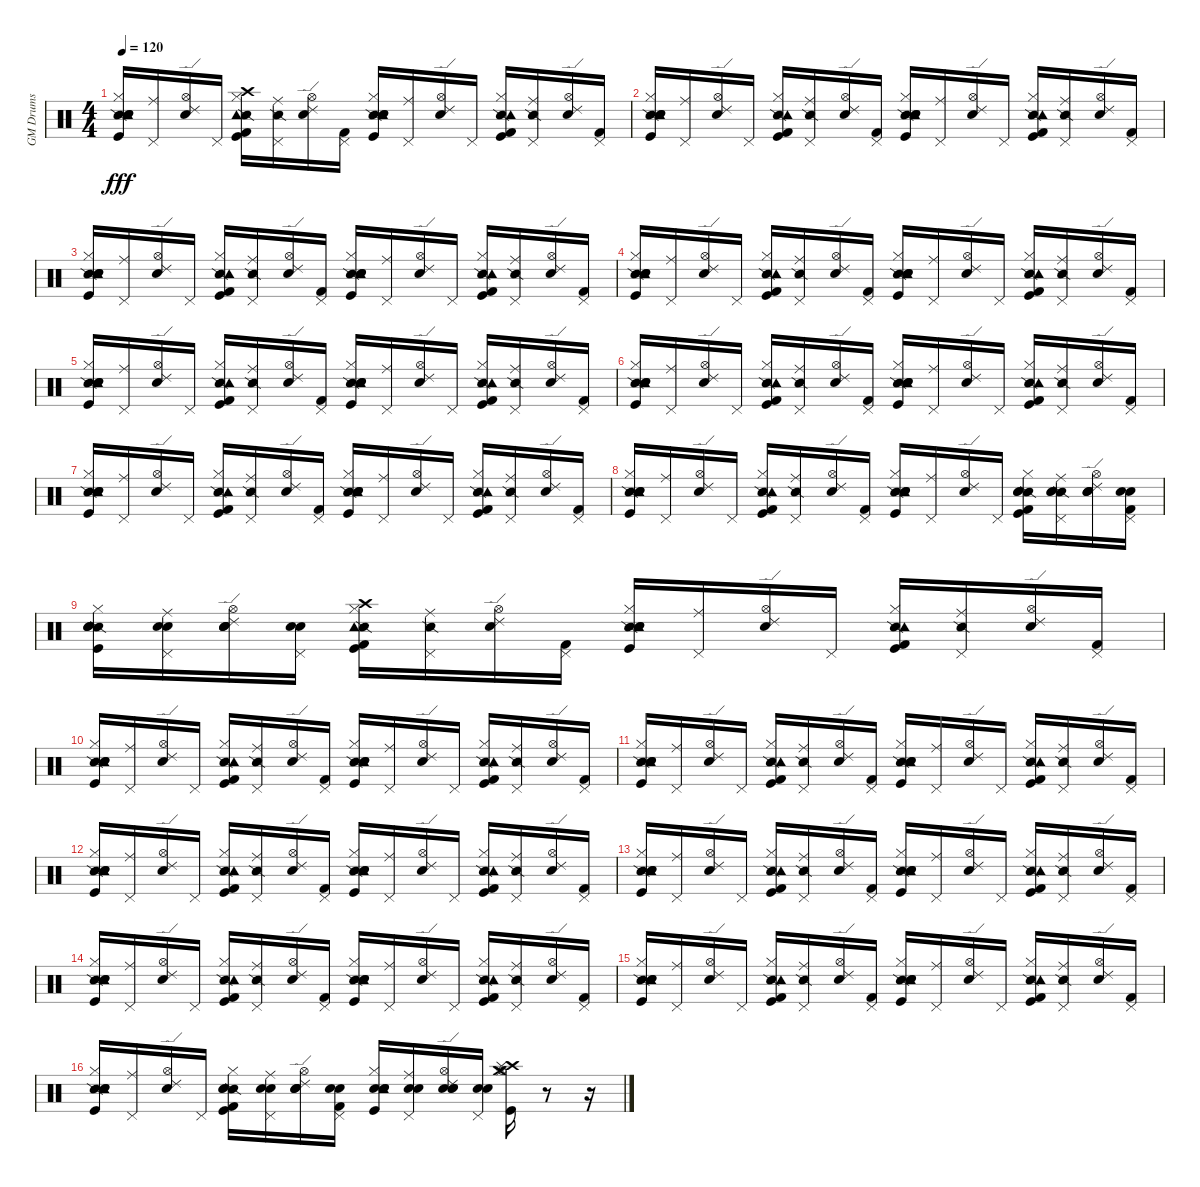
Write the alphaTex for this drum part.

\track ("GM Drums" "GM Drums") {instrument percussion}
\staff {score}
\articulation defaults
\ts (4 4)
\tempo 120
\clef neutral
\ks c
("Snare (side stick) 2" "Kick (hit)" "Snare (hit) 2" "Hand Clap (hit)" "Hi-Hat (closed)" "Tambourine (hit)").16{dy fff} ("Pedal Hi-Hat (hit)" "Ride (middle)").16 ("Metronome (bell)" "Hi-Hat (open)" "Ride (edge) 2").16 "Pedal Hi-Hat (hit)".16 ("Snare (side stick) 2" "Kick (hit)" "Kick (hit) 2" "Hi-Hat (closed)" "Crash high (hit)" "Tambourine (hit)").16 ("Snare (side stick) 2" "Pedal Hi-Hat (hit)" "Ride (middle)").16 ("Metronome (bell)" "Hi-Hat (open)" "Ride (edge) 2").16 ("Kick (hit) 2" "Pedal Hi-Hat (hit)").16 ("Snare (side stick) 2" "Kick (hit)" "Snare (hit) 2" "Hand Clap (hit)" "Hi-Hat (closed)" "Tambourine (hit)").16 ("Pedal Hi-Hat (hit)" "Ride (middle)").16 ("Metronome (bell)" "Hi-Hat (open)" "Ride (edge) 2").16 "Pedal Hi-Hat (hit)".16 ("Snare (side stick) 2" "Kick (hit)" "Kick (hit) 2" "Hi-Hat (closed)" "Tambourine (hit)").16 ("Snare (side stick) 2" "Pedal Hi-Hat (hit)" "Ride (middle)").16 ("Metronome (bell)" "Hi-Hat (open)" "Ride (edge) 2").16 ("Kick (hit) 2" "Pedal Hi-Hat (hit)").16 |
("Snare (side stick) 2" "Kick (hit)" "Snare (hit) 2" "Hand Clap (hit)" "Hi-Hat (closed)" "Tambourine (hit)").16 ("Pedal Hi-Hat (hit)" "Ride (middle)").16 ("Metronome (bell)" "Hi-Hat (open)" "Ride (edge) 2").16 "Pedal Hi-Hat (hit)".16 ("Snare (side stick) 2" "Kick (hit)" "Kick (hit) 2" "Hi-Hat (closed)" "Tambourine (hit)").16 ("Snare (side stick) 2" "Pedal Hi-Hat (hit)" "Ride (middle)").16 ("Metronome (bell)" "Hi-Hat (open)" "Ride (edge) 2").16 ("Kick (hit) 2" "Pedal Hi-Hat (hit)").16 ("Snare (side stick) 2" "Kick (hit)" "Snare (hit) 2" "Hand Clap (hit)" "Hi-Hat (closed)" "Tambourine (hit)").16 ("Pedal Hi-Hat (hit)" "Ride (middle)").16 ("Metronome (bell)" "Hi-Hat (open)" "Ride (edge) 2").16 "Pedal Hi-Hat (hit)".16 ("Snare (side stick) 2" "Kick (hit)" "Kick (hit) 2" "Hi-Hat (closed)" "Tambourine (hit)").16 ("Snare (side stick) 2" "Pedal Hi-Hat (hit)" "Ride (middle)").16 ("Metronome (bell)" "Hi-Hat (open)" "Ride (edge) 2").16 ("Kick (hit) 2" "Pedal Hi-Hat (hit)").16 |
("Snare (side stick) 2" "Kick (hit)" "Snare (hit) 2" "Hand Clap (hit)" "Hi-Hat (closed)" "Tambourine (hit)").16 ("Pedal Hi-Hat (hit)" "Ride (middle)").16 ("Metronome (bell)" "Hi-Hat (open)" "Ride (edge) 2").16 "Pedal Hi-Hat (hit)".16 ("Snare (side stick) 2" "Kick (hit)" "Kick (hit) 2" "Hi-Hat (closed)" "Tambourine (hit)").16 ("Snare (side stick) 2" "Pedal Hi-Hat (hit)" "Ride (middle)").16 ("Metronome (bell)" "Hi-Hat (open)" "Ride (edge) 2").16 ("Kick (hit) 2" "Pedal Hi-Hat (hit)").16 ("Snare (side stick) 2" "Kick (hit)" "Snare (hit) 2" "Hand Clap (hit)" "Hi-Hat (closed)" "Tambourine (hit)").16 ("Pedal Hi-Hat (hit)" "Ride (middle)").16 ("Metronome (bell)" "Hi-Hat (open)" "Ride (edge) 2").16 "Pedal Hi-Hat (hit)".16 ("Snare (side stick) 2" "Kick (hit)" "Kick (hit) 2" "Hi-Hat (closed)" "Tambourine (hit)").16 ("Snare (side stick) 2" "Pedal Hi-Hat (hit)" "Ride (middle)").16 ("Metronome (bell)" "Hi-Hat (open)" "Ride (edge) 2").16 ("Kick (hit) 2" "Pedal Hi-Hat (hit)").16 |
("Snare (side stick) 2" "Kick (hit)" "Snare (hit) 2" "Hand Clap (hit)" "Hi-Hat (closed)" "Tambourine (hit)").16 ("Pedal Hi-Hat (hit)" "Ride (middle)").16 ("Metronome (bell)" "Hi-Hat (open)" "Ride (edge) 2").16 "Pedal Hi-Hat (hit)".16 ("Snare (side stick) 2" "Kick (hit)" "Kick (hit) 2" "Hi-Hat (closed)" "Tambourine (hit)").16 ("Snare (side stick) 2" "Pedal Hi-Hat (hit)" "Ride (middle)").16 ("Metronome (bell)" "Hi-Hat (open)" "Ride (edge) 2").16 ("Kick (hit) 2" "Pedal Hi-Hat (hit)").16 ("Snare (side stick) 2" "Kick (hit)" "Snare (hit) 2" "Hand Clap (hit)" "Hi-Hat (closed)" "Tambourine (hit)").16 ("Pedal Hi-Hat (hit)" "Ride (middle)").16 ("Metronome (bell)" "Hi-Hat (open)" "Ride (edge) 2").16 "Pedal Hi-Hat (hit)".16 ("Snare (side stick) 2" "Kick (hit)" "Kick (hit) 2" "Hi-Hat (closed)" "Tambourine (hit)").16 ("Snare (side stick) 2" "Pedal Hi-Hat (hit)" "Ride (middle)").16 ("Metronome (bell)" "Hi-Hat (open)" "Ride (edge) 2").16 ("Kick (hit) 2" "Pedal Hi-Hat (hit)").16 |
("Snare (side stick) 2" "Kick (hit)" "Snare (hit) 2" "Hand Clap (hit)" "Hi-Hat (closed)" "Tambourine (hit)").16 ("Pedal Hi-Hat (hit)" "Ride (middle)").16 ("Metronome (bell)" "Hi-Hat (open)" "Ride (edge) 2").16 "Pedal Hi-Hat (hit)".16 ("Snare (side stick) 2" "Kick (hit)" "Kick (hit) 2" "Hi-Hat (closed)" "Tambourine (hit)").16 ("Snare (side stick) 2" "Pedal Hi-Hat (hit)" "Ride (middle)").16 ("Metronome (bell)" "Hi-Hat (open)" "Ride (edge) 2").16 ("Kick (hit) 2" "Pedal Hi-Hat (hit)").16 ("Snare (side stick) 2" "Kick (hit)" "Snare (hit) 2" "Hand Clap (hit)" "Hi-Hat (closed)" "Tambourine (hit)").16 ("Pedal Hi-Hat (hit)" "Ride (middle)").16 ("Metronome (bell)" "Hi-Hat (open)" "Ride (edge) 2").16 "Pedal Hi-Hat (hit)".16 ("Snare (side stick) 2" "Kick (hit)" "Kick (hit) 2" "Hi-Hat (closed)" "Tambourine (hit)").16 ("Snare (side stick) 2" "Pedal Hi-Hat (hit)" "Ride (middle)").16 ("Metronome (bell)" "Hi-Hat (open)" "Ride (edge) 2").16 ("Kick (hit) 2" "Pedal Hi-Hat (hit)").16 |
("Snare (side stick) 2" "Kick (hit)" "Snare (hit) 2" "Hand Clap (hit)" "Hi-Hat (closed)" "Tambourine (hit)").16 ("Pedal Hi-Hat (hit)" "Ride (middle)").16 ("Metronome (bell)" "Hi-Hat (open)" "Ride (edge) 2").16 "Pedal Hi-Hat (hit)".16 ("Snare (side stick) 2" "Kick (hit)" "Kick (hit) 2" "Hi-Hat (closed)" "Tambourine (hit)").16 ("Snare (side stick) 2" "Pedal Hi-Hat (hit)" "Ride (middle)").16 ("Metronome (bell)" "Hi-Hat (open)" "Ride (edge) 2").16 ("Kick (hit) 2" "Pedal Hi-Hat (hit)").16 ("Snare (side stick) 2" "Kick (hit)" "Snare (hit) 2" "Hand Clap (hit)" "Hi-Hat (closed)" "Tambourine (hit)").16 ("Pedal Hi-Hat (hit)" "Ride (middle)").16 ("Metronome (bell)" "Hi-Hat (open)" "Ride (edge) 2").16 "Pedal Hi-Hat (hit)".16 ("Snare (side stick) 2" "Kick (hit)" "Kick (hit) 2" "Hi-Hat (closed)" "Tambourine (hit)").16 ("Snare (side stick) 2" "Pedal Hi-Hat (hit)" "Ride (middle)").16 ("Metronome (bell)" "Hi-Hat (open)" "Ride (edge) 2").16 ("Kick (hit) 2" "Pedal Hi-Hat (hit)").16 |
("Snare (side stick) 2" "Kick (hit)" "Snare (hit) 2" "Hand Clap (hit)" "Hi-Hat (closed)" "Tambourine (hit)").16 ("Pedal Hi-Hat (hit)" "Ride (middle)").16 ("Metronome (bell)" "Hi-Hat (open)" "Ride (edge) 2").16 "Pedal Hi-Hat (hit)".16 ("Snare (side stick) 2" "Kick (hit)" "Kick (hit) 2" "Hi-Hat (closed)" "Tambourine (hit)").16 ("Snare (side stick) 2" "Pedal Hi-Hat (hit)" "Ride (middle)").16 ("Metronome (bell)" "Hi-Hat (open)" "Ride (edge) 2").16 ("Kick (hit) 2" "Pedal Hi-Hat (hit)").16 ("Snare (side stick) 2" "Kick (hit)" "Snare (hit) 2" "Hand Clap (hit)" "Hi-Hat (closed)" "Tambourine (hit)").16 ("Pedal Hi-Hat (hit)" "Ride (middle)").16 ("Metronome (bell)" "Hi-Hat (open)" "Ride (edge) 2").16 "Pedal Hi-Hat (hit)".16 ("Snare (side stick) 2" "Kick (hit)" "Kick (hit) 2" "Hi-Hat (closed)" "Tambourine (hit)").16 ("Snare (side stick) 2" "Pedal Hi-Hat (hit)" "Ride (middle)").16 ("Metronome (bell)" "Hi-Hat (open)" "Ride (edge) 2").16 ("Kick (hit) 2" "Pedal Hi-Hat (hit)").16 |
("Snare (side stick) 2" "Kick (hit)" "Snare (hit) 2" "Hand Clap (hit)" "Hi-Hat (closed)" "Tambourine (hit)").16 ("Pedal Hi-Hat (hit)" "Ride (middle)").16 ("Metronome (bell)" "Hi-Hat (open)" "Ride (edge) 2").16 "Pedal Hi-Hat (hit)".16 ("Snare (side stick) 2" "Kick (hit)" "Kick (hit) 2" "Hi-Hat (closed)" "Tambourine (hit)").16 ("Snare (side stick) 2" "Pedal Hi-Hat (hit)" "Ride (middle)").16 ("Metronome (bell)" "Hi-Hat (open)" "Ride (edge) 2").16 ("Kick (hit) 2" "Pedal Hi-Hat (hit)").16 ("Snare (side stick) 2" "Kick (hit)" "Snare (hit) 2" "Hand Clap (hit)" "Hi-Hat (closed)" "Tambourine (hit)").16 ("Pedal Hi-Hat (hit)" "Ride (middle)").16 ("Metronome (bell)" "Hi-Hat (open)" "Ride (edge) 2").16 "Pedal Hi-Hat (hit)".16 ("Snare (side stick) 2" "Kick (hit)" "Kick (hit) 2" "Snare (hit) 2" "Electric Snare (hit)" "Hi-Hat (closed)").16 ("Snare (side stick) 2" "Snare (hit) 2" "Electric Snare (hit)" "Pedal Hi-Hat (hit)" "Ride (middle)").16 ("Metronome (bell)" "Snare (hit) 2" "Electric Snare (hit)" "Hi-Hat (open)" "Ride (edge) 2").16 ("Kick (hit) 2" "Snare (hit) 2" "Electric Snare (hit)" "Pedal Hi-Hat (hit)").16 |
("Snare (side stick) 2" "Kick (hit)" "Snare (hit) 2" "Hand Clap (hit)" "Electric Snare (hit)" "Hi-Hat (closed)").16 ("Snare (hit) 2" "Electric Snare (hit)" "Pedal Hi-Hat (hit)" "Ride (middle)").16 ("Metronome (bell)" "Snare (hit) 2" "Electric Snare (hit)" "Hi-Hat (open)" "Ride (edge) 2").16 ("Snare (hit) 2" "Electric Snare (hit)" "Pedal Hi-Hat (hit)").16 ("Snare (side stick) 2" "Kick (hit)" "Kick (hit) 2" "Hi-Hat (closed)" "Crash high (hit)" "Tambourine (hit)").16 ("Snare (side stick) 2" "Pedal Hi-Hat (hit)" "Ride (middle)").16 ("Metronome (bell)" "Hi-Hat (open)" "Ride (edge) 2").16 ("Kick (hit) 2" "Pedal Hi-Hat (hit)").16 ("Snare (side stick) 2" "Kick (hit)" "Snare (hit) 2" "Hand Clap (hit)" "Hi-Hat (closed)" "Tambourine (hit)").16 ("Pedal Hi-Hat (hit)" "Ride (middle)").16 ("Metronome (bell)" "Hi-Hat (open)" "Ride (edge) 2").16 "Pedal Hi-Hat (hit)".16 ("Snare (side stick) 2" "Kick (hit)" "Kick (hit) 2" "Hi-Hat (closed)" "Tambourine (hit)").16 ("Snare (side stick) 2" "Pedal Hi-Hat (hit)" "Ride (middle)").16 ("Metronome (bell)" "Hi-Hat (open)" "Ride (edge) 2").16 ("Kick (hit) 2" "Pedal Hi-Hat (hit)").16 |
("Snare (side stick) 2" "Kick (hit)" "Snare (hit) 2" "Hand Clap (hit)" "Hi-Hat (closed)" "Tambourine (hit)").16 ("Pedal Hi-Hat (hit)" "Ride (middle)").16 ("Metronome (bell)" "Hi-Hat (open)" "Ride (edge) 2").16 "Pedal Hi-Hat (hit)".16 ("Snare (side stick) 2" "Kick (hit)" "Kick (hit) 2" "Hi-Hat (closed)" "Tambourine (hit)").16 ("Snare (side stick) 2" "Pedal Hi-Hat (hit)" "Ride (middle)").16 ("Metronome (bell)" "Hi-Hat (open)" "Ride (edge) 2").16 ("Kick (hit) 2" "Pedal Hi-Hat (hit)").16 ("Snare (side stick) 2" "Kick (hit)" "Snare (hit) 2" "Hand Clap (hit)" "Hi-Hat (closed)" "Tambourine (hit)").16 ("Pedal Hi-Hat (hit)" "Ride (middle)").16 ("Metronome (bell)" "Hi-Hat (open)" "Ride (edge) 2").16 "Pedal Hi-Hat (hit)".16 ("Snare (side stick) 2" "Kick (hit)" "Kick (hit) 2" "Hi-Hat (closed)" "Tambourine (hit)").16 ("Snare (side stick) 2" "Pedal Hi-Hat (hit)" "Ride (middle)").16 ("Metronome (bell)" "Hi-Hat (open)" "Ride (edge) 2").16 ("Kick (hit) 2" "Pedal Hi-Hat (hit)").16 |
("Snare (side stick) 2" "Kick (hit)" "Snare (hit) 2" "Hand Clap (hit)" "Hi-Hat (closed)" "Tambourine (hit)").16 ("Pedal Hi-Hat (hit)" "Ride (middle)").16 ("Metronome (bell)" "Hi-Hat (open)" "Ride (edge) 2").16 "Pedal Hi-Hat (hit)".16 ("Snare (side stick) 2" "Kick (hit)" "Kick (hit) 2" "Hi-Hat (closed)" "Tambourine (hit)").16 ("Snare (side stick) 2" "Pedal Hi-Hat (hit)" "Ride (middle)").16 ("Metronome (bell)" "Hi-Hat (open)" "Ride (edge) 2").16 ("Kick (hit) 2" "Pedal Hi-Hat (hit)").16 ("Snare (side stick) 2" "Kick (hit)" "Snare (hit) 2" "Hand Clap (hit)" "Hi-Hat (closed)" "Tambourine (hit)").16 ("Pedal Hi-Hat (hit)" "Ride (middle)").16 ("Metronome (bell)" "Hi-Hat (open)" "Ride (edge) 2").16 "Pedal Hi-Hat (hit)".16 ("Snare (side stick) 2" "Kick (hit)" "Kick (hit) 2" "Hi-Hat (closed)" "Tambourine (hit)").16 ("Snare (side stick) 2" "Pedal Hi-Hat (hit)" "Ride (middle)").16 ("Metronome (bell)" "Hi-Hat (open)" "Ride (edge) 2").16 ("Kick (hit) 2" "Pedal Hi-Hat (hit)").16 |
("Snare (side stick) 2" "Kick (hit)" "Snare (hit) 2" "Hand Clap (hit)" "Hi-Hat (closed)" "Tambourine (hit)").16 ("Pedal Hi-Hat (hit)" "Ride (middle)").16 ("Metronome (bell)" "Hi-Hat (open)" "Ride (edge) 2").16 "Pedal Hi-Hat (hit)".16 ("Snare (side stick) 2" "Kick (hit)" "Kick (hit) 2" "Hi-Hat (closed)" "Tambourine (hit)").16 ("Snare (side stick) 2" "Pedal Hi-Hat (hit)" "Ride (middle)").16 ("Metronome (bell)" "Hi-Hat (open)" "Ride (edge) 2").16 ("Kick (hit) 2" "Pedal Hi-Hat (hit)").16 ("Snare (side stick) 2" "Kick (hit)" "Snare (hit) 2" "Hand Clap (hit)" "Hi-Hat (closed)" "Tambourine (hit)").16 ("Pedal Hi-Hat (hit)" "Ride (middle)").16 ("Metronome (bell)" "Hi-Hat (open)" "Ride (edge) 2").16 "Pedal Hi-Hat (hit)".16 ("Snare (side stick) 2" "Kick (hit)" "Kick (hit) 2" "Hi-Hat (closed)" "Tambourine (hit)").16 ("Snare (side stick) 2" "Pedal Hi-Hat (hit)" "Ride (middle)").16 ("Metronome (bell)" "Hi-Hat (open)" "Ride (edge) 2").16 ("Kick (hit) 2" "Pedal Hi-Hat (hit)").16 |
("Snare (side stick) 2" "Kick (hit)" "Snare (hit) 2" "Hand Clap (hit)" "Hi-Hat (closed)" "Tambourine (hit)").16 ("Pedal Hi-Hat (hit)" "Ride (middle)").16 ("Metronome (bell)" "Hi-Hat (open)" "Ride (edge) 2").16 "Pedal Hi-Hat (hit)".16 ("Snare (side stick) 2" "Kick (hit)" "Kick (hit) 2" "Hi-Hat (closed)" "Tambourine (hit)").16 ("Snare (side stick) 2" "Pedal Hi-Hat (hit)" "Ride (middle)").16 ("Metronome (bell)" "Hi-Hat (open)" "Ride (edge) 2").16 ("Kick (hit) 2" "Pedal Hi-Hat (hit)").16 ("Snare (side stick) 2" "Kick (hit)" "Snare (hit) 2" "Hand Clap (hit)" "Hi-Hat (closed)" "Tambourine (hit)").16 ("Pedal Hi-Hat (hit)" "Ride (middle)").16 ("Metronome (bell)" "Hi-Hat (open)" "Ride (edge) 2").16 "Pedal Hi-Hat (hit)".16 ("Snare (side stick) 2" "Kick (hit)" "Kick (hit) 2" "Hi-Hat (closed)" "Tambourine (hit)").16 ("Snare (side stick) 2" "Pedal Hi-Hat (hit)" "Ride (middle)").16 ("Metronome (bell)" "Hi-Hat (open)" "Ride (edge) 2").16 ("Kick (hit) 2" "Pedal Hi-Hat (hit)").16 |
("Snare (side stick) 2" "Kick (hit)" "Snare (hit) 2" "Hand Clap (hit)" "Hi-Hat (closed)" "Tambourine (hit)").16 ("Pedal Hi-Hat (hit)" "Ride (middle)").16 ("Metronome (bell)" "Hi-Hat (open)" "Ride (edge) 2").16 "Pedal Hi-Hat (hit)".16 ("Snare (side stick) 2" "Kick (hit)" "Kick (hit) 2" "Hi-Hat (closed)" "Tambourine (hit)").16 ("Snare (side stick) 2" "Pedal Hi-Hat (hit)" "Ride (middle)").16 ("Metronome (bell)" "Hi-Hat (open)" "Ride (edge) 2").16 ("Kick (hit) 2" "Pedal Hi-Hat (hit)").16 ("Snare (side stick) 2" "Kick (hit)" "Snare (hit) 2" "Hand Clap (hit)" "Hi-Hat (closed)" "Tambourine (hit)").16 ("Pedal Hi-Hat (hit)" "Ride (middle)").16 ("Metronome (bell)" "Hi-Hat (open)" "Ride (edge) 2").16 "Pedal Hi-Hat (hit)".16 ("Snare (side stick) 2" "Kick (hit)" "Kick (hit) 2" "Hi-Hat (closed)" "Tambourine (hit)").16 ("Snare (side stick) 2" "Pedal Hi-Hat (hit)" "Ride (middle)").16 ("Metronome (bell)" "Hi-Hat (open)" "Ride (edge) 2").16 ("Kick (hit) 2" "Pedal Hi-Hat (hit)").16 |
("Snare (side stick) 2" "Kick (hit)" "Snare (hit) 2" "Hand Clap (hit)" "Hi-Hat (closed)" "Tambourine (hit)").16 ("Pedal Hi-Hat (hit)" "Ride (middle)").16 ("Metronome (bell)" "Hi-Hat (open)" "Ride (edge) 2").16 "Pedal Hi-Hat (hit)".16 ("Snare (side stick) 2" "Kick (hit)" "Kick (hit) 2" "Hi-Hat (closed)" "Tambourine (hit)").16 ("Snare (side stick) 2" "Pedal Hi-Hat (hit)" "Ride (middle)").16 ("Metronome (bell)" "Hi-Hat (open)" "Ride (edge) 2").16 ("Kick (hit) 2" "Pedal Hi-Hat (hit)").16 ("Snare (side stick) 2" "Kick (hit)" "Snare (hit) 2" "Hand Clap (hit)" "Hi-Hat (closed)" "Tambourine (hit)").16 ("Pedal Hi-Hat (hit)" "Ride (middle)").16 ("Metronome (bell)" "Hi-Hat (open)" "Ride (edge) 2").16 "Pedal Hi-Hat (hit)".16 ("Snare (side stick) 2" "Kick (hit)" "Kick (hit) 2" "Hi-Hat (closed)" "Tambourine (hit)").16 ("Snare (side stick) 2" "Pedal Hi-Hat (hit)" "Ride (middle)").16 ("Metronome (bell)" "Hi-Hat (open)" "Ride (edge) 2").16 ("Kick (hit) 2" "Pedal Hi-Hat (hit)").16 |
("Snare (side stick) 2" "Kick (hit)" "Snare (hit) 2" "Hand Clap (hit)" "Hi-Hat (closed)" "Tambourine (hit)").16 ("Pedal Hi-Hat (hit)" "Ride (middle)").16 ("Metronome (bell)" "Hi-Hat (open)" "Ride (edge) 2").16 "Pedal Hi-Hat (hit)".16 ("Snare (side stick) 2" "Kick (hit)" "Kick (hit) 2" "Snare (hit) 2" "Electric Snare (hit)" "Hi-Hat (closed)").16 ("Snare (hit) 2" "Electric Snare (hit)" "Pedal Hi-Hat (hit)" "Ride (middle)").16 ("Metronome (bell)" "Snare (hit) 2" "Electric Snare (hit)" "Hi-Hat (open)" "Ride (edge) 2").16 ("Kick (hit) 2" "Snare (hit) 2" "Electric Snare (hit)" "Pedal Hi-Hat (hit)").16 ("Kick (hit)" "Snare (hit) 2" "Hand Clap (hit)" "Electric Snare (hit)" "Hi-Hat (closed)" "Tambourine (hit)").16 ("Snare (hit) 2" "Electric Snare (hit)" "Pedal Hi-Hat (hit)" "Ride (middle)").16 ("Metronome (bell)" "Snare (hit) 2" "Electric Snare (hit)" "Hi-Hat (open)" "Ride (edge) 2").16 ("Snare (hit) 2" "Electric Snare (hit)" "Pedal Hi-Hat (hit)").16 ("Kick (hit)" "Hi-Hat (closed)" "Hi-Hat (open)" "Crash high (hit)" "Splash (hit)" "Crash medium (hit)").16 r.8 r.16
